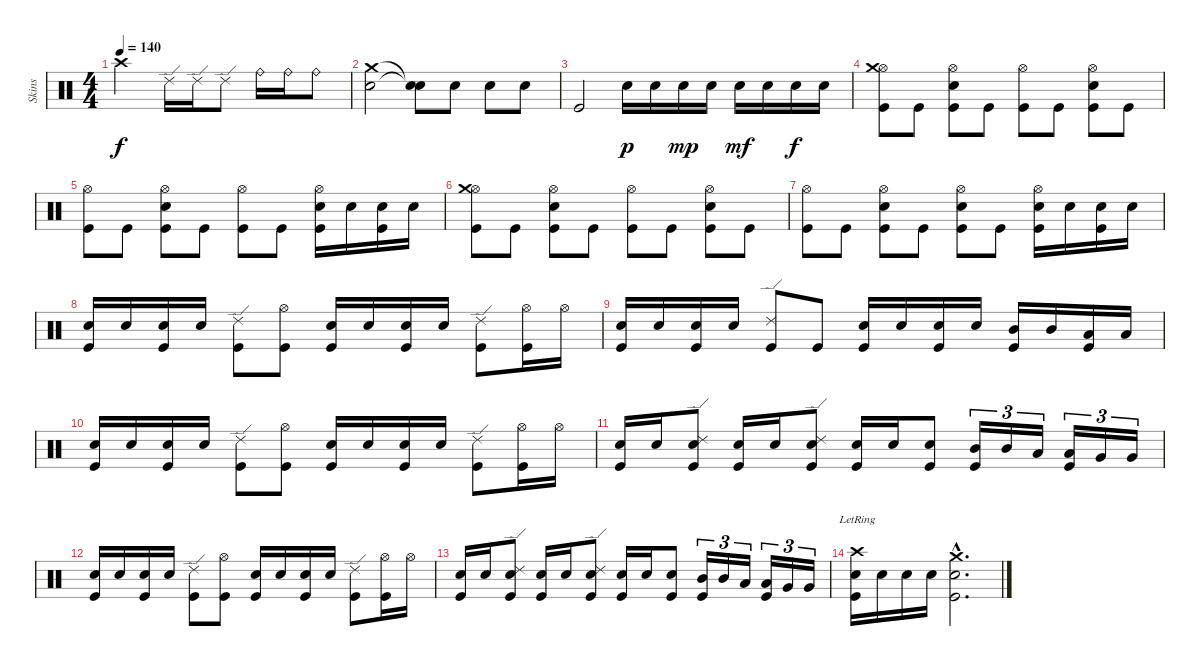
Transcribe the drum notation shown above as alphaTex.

\track ("Skins" "Skins") {instrument percussion}
\staff {score}
\articulation defaults
\ts (4 4)
\tempo 140
\clef neutral
\ks c "Crash high (hit)".2{dy f} "Ride (edge) 2".16 "Ride (edge) 2".16 "Ride (edge) 2".8 "Ride (bell)".16 "Ride (bell)".16 "Ride (bell)".8
|
("Crash medium (hit)" "Snare (hit) 2").2 ("Snare (hit)"{t} "Snare (hit)"{t}).8 "Snare (hit) 2".8 "Snare (hit) 2".8 "Snare (hit) 2".8 |
"Kick (hit)".2 "Electric Snare (hit)".16{dy p} "Electric Snare (hit)".16 "Electric Snare (hit)".16{dy mp} "Electric Snare (hit)".16 "Electric Snare (hit)".16{dy mf} "Electric Snare (hit)".16 "Electric Snare (hit)".16{dy f} "Electric Snare (hit)".16 |
("Hi-Hat (open)" "Crash medium (hit)" "Kick (hit)").8 "Kick (hit)".8 ("Hi-Hat (open)" "Electric Snare (hit)" "Kick (hit)").8 "Kick (hit)".8 ("Hi-Hat (open)" "Kick (hit)").8 "Kick (hit)".8 ("Hi-Hat (open)" "Electric Snare (hit)" "Kick (hit)").8 "Kick (hit)".8 |
("Hi-Hat (open)" "Kick (hit)").8 "Kick (hit)".8 ("Hi-Hat (open)" "Electric Snare (hit)" "Kick (hit)").8 "Kick (hit)".8 ("Hi-Hat (open)" "Kick (hit)").8 "Kick (hit)".8 ("Hi-Hat (open)" "Electric Snare (hit)" "Kick (hit)").16 "Electric Snare (hit)".16 ("Electric Snare (hit)" "Kick (hit)").16 "Electric Snare (hit)".16 |
("Hi-Hat (open)" "Crash medium (hit)" "Kick (hit)").8 "Kick (hit)".8 ("Hi-Hat (open)" "Electric Snare (hit)" "Kick (hit)").8 "Kick (hit)".8 ("Hi-Hat (open)" "Kick (hit)").8 "Kick (hit)".8 ("Hi-Hat (open)" "Electric Snare (hit)" "Kick (hit)").8 "Kick (hit)".8 |
("Hi-Hat (open)" "Kick (hit)").8 "Kick (hit)".8 ("Hi-Hat (open)" "Electric Snare (hit)" "Kick (hit)").8 "Kick (hit)".8 ("Hi-Hat (open)" "Electric Snare (hit)" "Kick (hit)").8 "Kick (hit)".8 ("Hi-Hat (open)" "Electric Snare (hit)" "Kick (hit)").16 "Electric Snare (hit)".16 ("Electric Snare (hit)" "Kick (hit)").16 "Electric Snare (hit)".16 |
("Snare (hit) 2" "Kick (hit)").16 "Snare (hit) 2".16 ("Snare (hit) 2" "Kick (hit)").16 "Snare (hit) 2".16 ("Ride (edge) 2" "Kick (hit)").8 ("Hi-Hat (open)" "Kick (hit)").8 ("Snare (hit) 2" "Kick (hit)").16 "Snare (hit) 2".16 ("Snare (hit) 2" "Kick (hit)").16 "Snare (hit) 2".16 ("Ride (edge) 2" "Kick (hit)").8 ("Hi-Hat (open)" "Kick (hit)").16 "Hi-Hat (open)".16 |
("Electric Snare (hit)" "Kick (hit)").16 "Electric Snare (hit)".16 ("Snare (hit) 2" "Kick (hit)").16 "Snare (hit) 2".16 ("Ride (edge) 2" "Kick (hit)").8 "Kick (hit)".8 ("Electric Snare (hit)" "Kick (hit)").16 "Electric Snare (hit)".16 ("Snare (hit) 2" "Kick (hit)").16 "Snare (hit) 2".16 ("Mid Tom (hit)" "Kick (hit)").16 "Mid Tom (hit)".16 ("Low Tom (hit)" "Kick (hit)").16 "Low Tom (hit)".16 |
("Snare (hit) 2" "Kick (hit)").16 "Snare (hit) 2".16 ("Snare (hit) 2" "Kick (hit)").16 "Snare (hit) 2".16 ("Ride (edge) 2" "Kick (hit)").8 ("Hi-Hat (open)" "Kick (hit)").8 ("Snare (hit) 2" "Kick (hit)").16 "Snare (hit) 2".16 ("Snare (hit) 2" "Kick (hit)").16 "Snare (hit) 2".16 ("Ride (edge) 2" "Kick (hit)").8 ("Hi-Hat (open)" "Kick (hit)").16 "Hi-Hat (open)".16 |
("Snare (hit) 2" "Kick (hit)").16 "Snare (hit) 2".16 ("Snare (hit) 2" "Ride (edge) 2" "Kick (hit)").8 ("Electric Snare (hit)" "Kick (hit)").16 "Electric Snare (hit)".16 ("Electric Snare (hit)" "Ride (edge) 2" "Kick (hit)").8 ("Snare (hit) 2" "Kick (hit)").16 "Snare (hit) 2".16 ("Snare (hit) 2" "Kick (hit)").8 ("Mid Tom (hit)" "Kick (hit)").16{tu (3 2)} "Mid Tom (hit)".16{tu (3 2)} "Low Tom (hit)".16{tu (3 2)} ("Low Tom (hit)" "Kick (hit)").16{tu (3 2)} "Very Low Tom (hit)".16{tu (3 2)} "Very Low Tom (hit)".16{tu (3 2)} |
("Snare (hit) 2" "Kick (hit)").16 "Snare (hit) 2".16 ("Snare (hit) 2" "Kick (hit)").16 "Snare (hit) 2".16 ("Ride (edge) 2" "Kick (hit)").8 ("Hi-Hat (open)" "Kick (hit)").8 ("Snare (hit) 2" "Kick (hit)").16 "Snare (hit) 2".16 ("Snare (hit) 2" "Kick (hit)").16 "Snare (hit) 2".16 ("Ride (edge) 2" "Kick (hit)").8 ("Hi-Hat (open)" "Kick (hit)").16 "Hi-Hat (open)".16 |
("Snare (hit) 2" "Kick (hit)").16 "Snare (hit) 2".16 ("Snare (hit) 2" "Ride (edge) 2" "Kick (hit)").8 ("Electric Snare (hit)" "Kick (hit)").16 "Electric Snare (hit)".16 ("Electric Snare (hit)" "Ride (edge) 2" "Kick (hit)").8 ("Snare (hit) 2" "Kick (hit)").16 "Snare (hit) 2".16 ("Snare (hit) 2" "Kick (hit)").8 ("Mid Tom (hit)" "Kick (hit)").16{tu (3 2)} "Mid Tom (hit)".16{tu (3 2)} "Low Tom (hit)".16{tu (3 2)} ("Low Tom (hit)" "Kick (hit)").16{tu (3 2)} "Very Low Tom (hit)".16{tu (3 2)} "Very Low Tom (hit)".16{tu (3 2)} |
("Crash high (hit)"{lr} "Snare (hit) 2"{lr} "Kick (hit)").16 "Snare (hit) 2".16 "Snare (hit) 2".16 "Snare (hit) 2".16 ("Crash medium (hit)"{hac} "Snare (hit) 2"{hac} "Kick (hit)"{hac}).2{d}
